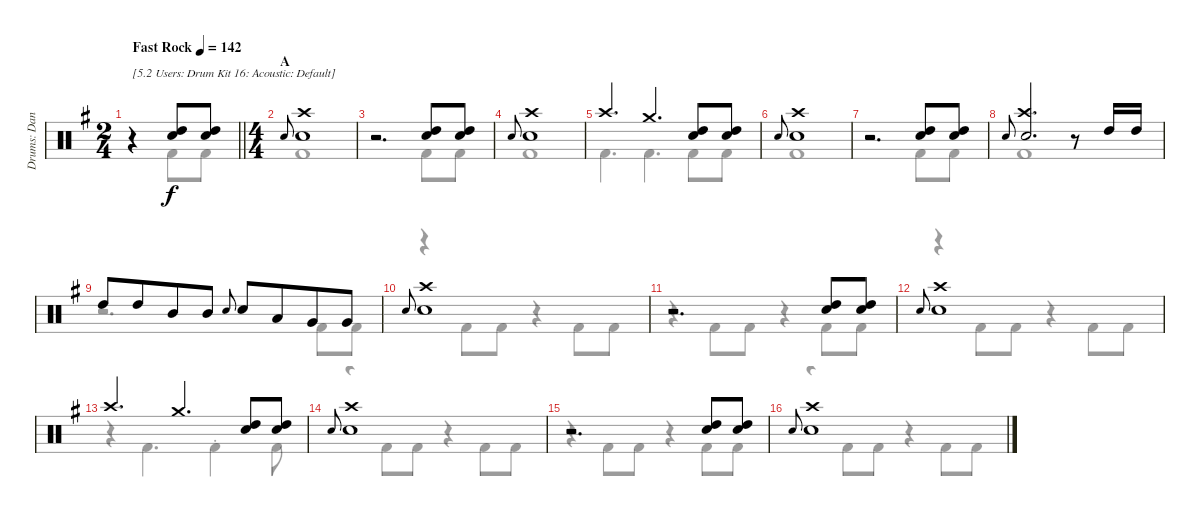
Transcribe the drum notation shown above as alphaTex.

\track ("Drums: Dana" "Drums: Dan") {instrument percussion}
\staff {score}
\articulation defaults
\voice
\ts (2 4)
\tempo (142 "Fast Rock")
\clef neutral
\barLineRight lightlight
\ks g
r.4{txt "[5.2 Users: Drum Kit 16: Acoustic: Default]" dy f} ("Snare (hit) 2" "High Tom (hit)").8 ("Snare (hit) 2" "High Tom (hit)").8 |
\ts (4 4)
\section ("" "A")
"Electric Snare (hit)".8{gr onbeat} ("Crash high (hit)" "Snare (hit) 2").1 |
r.2{d} ("Snare (hit) 2" "High Tom (hit)").8 ("Snare (hit) 2" "High Tom (hit)").8 |
"Electric Snare (hit)".8{gr onbeat} ("Crash high (hit)" "Snare (hit) 2").1 |
"Crash high (hit)".4{d} "Crash medium (hit)".4{d} ("Snare (hit) 2" "High Tom (hit)").8 ("Snare (hit) 2" "High Tom (hit)").8 |
"Electric Snare (hit)".8{gr onbeat} ("Crash high (hit)" "Snare (hit) 2").1 |
r.2{d} ("Snare (hit) 2" "High Tom (hit)").8 ("Snare (hit) 2" "High Tom (hit)").8 |
"Electric Snare (hit)".8{gr onbeat} ("Crash high (hit)" "Snare (hit) 2").2{d} r.8 "High Tom (hit)".16 "High Tom (hit)".16 |
"High Tom (hit)".8 "High Tom (hit)".8{beam merge} "Mid Tom (hit)".8 "Mid Tom (hit)".8 "Electric Snare (hit)".8{gr onbeat} "Snare (hit) 2".8 "Low Tom (hit)".8{beam merge} "Very Low Tom (hit)".8 "Very Low Tom (hit)".8 |
"Electric Snare (hit)".8{gr onbeat} ("Crash high (hit)" "Snare (hit) 2").1 |
r.2{d} ("Snare (hit) 2" "High Tom (hit)").8 ("Snare (hit) 2" "High Tom (hit)").8 |
"Electric Snare (hit)".8{gr onbeat} ("Crash high (hit)" "Snare (hit) 2").1 |
"Crash high (hit)".4{d} "Crash medium (hit)".4{d} ("Snare (hit) 2" "High Tom (hit)").8 ("Snare (hit) 2" "High Tom (hit)").8 |
"Electric Snare (hit)".8{gr onbeat} ("Crash high (hit)" "Snare (hit) 2").1 |
r.2{d} ("Snare (hit) 2" "High Tom (hit)").8 ("Snare (hit) 2" "High Tom (hit)").8 |
"Electric Snare (hit)".8{gr onbeat} ("Crash high (hit)" "Snare (hit) 2").1
\voice
\clef neutral
\ottava regular
\simile none
\barLineRight lightlight
\ks g
r.4{dy f} "Kick (hit) 2".8 "Kick (hit) 2".8 |
"Kick (hit) 2".1 |
r.2{d} "Kick (hit) 2".8 "Kick (hit) 2".8 |
"Kick (hit) 2".1 |
"Kick (hit) 2".4{d} "Kick (hit) 2".4{d} "Kick (hit) 2".8 "Kick (hit) 2".8 |
"Kick (hit) 2".1 |
r.2{d} "Kick (hit) 2".8 "Kick (hit) 2".8 |
"Kick (hit) 2".1 |
r.2{d} "Kick (hit) 2".8 "Kick (hit) 2".8 |
r.4 "Kick (hit) 2".8 "Kick (hit) 2".8 r.4 "Kick (hit) 2".8 "Kick (hit) 2".8 |
r.4 "Kick (hit) 2".8 "Kick (hit) 2".8 r.4 "Kick (hit) 2".8 "Kick (hit) 2".8 |
r.4 "Kick (hit) 2".8 "Kick (hit) 2".8 r.4 "Kick (hit) 2".8 "Kick (hit) 2".8 |
r.4 "Kick (hit) 2".4{d} "Kick (hit) 2"{st}.4 "Kick (hit) 2".8 |
r.4 "Kick (hit) 2".8 "Kick (hit) 2".8 r.4 "Kick (hit) 2".8 "Kick (hit) 2".8 |
r.4 "Kick (hit) 2".8 "Kick (hit) 2".8 r.4 "Kick (hit) 2".8 "Kick (hit) 2".8 |
r.4 "Kick (hit) 2".8 "Kick (hit) 2".8 r.4 "Kick (hit) 2".8 "Kick (hit) 2".8
